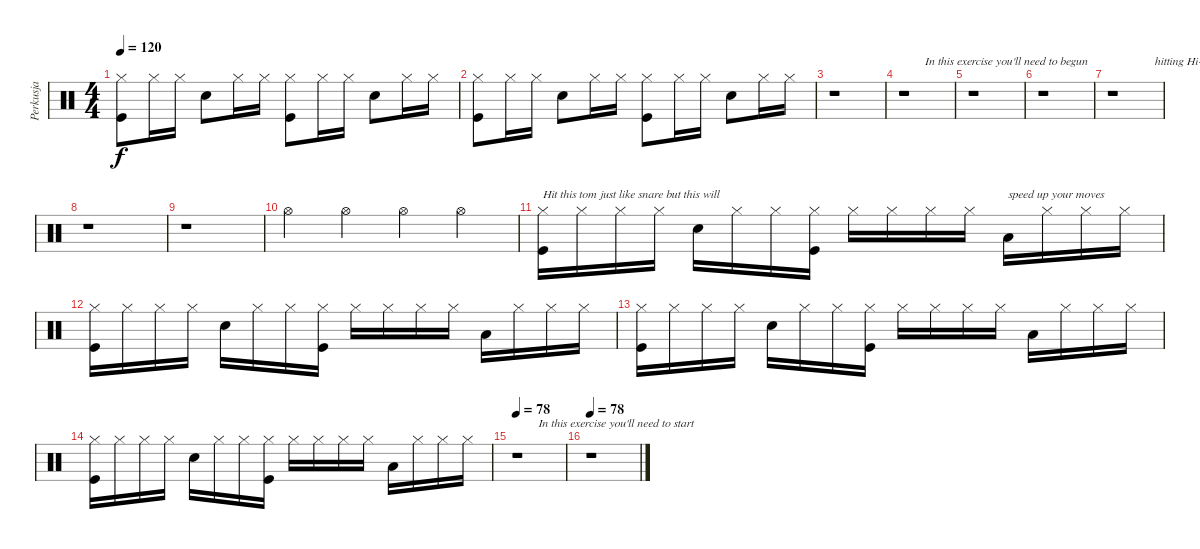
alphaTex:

\track ("Perkusja" "Perkusja") {instrument percussion}
\staff {score}
\articulation defaults
\ts (4 4)
\tempo 120
\clef neutral
\ks c
("Hi-Hat (closed)" "Kick (hit)").8{dy f} "Hi-Hat (closed)".16 "Hi-Hat (closed)".16 "Electric Snare (hit)".8 "Hi-Hat (closed)".16 "Hi-Hat (closed)".16 ("Hi-Hat (closed)" "Kick (hit)").8 "Hi-Hat (closed)".16 "Hi-Hat (closed)".16 "Electric Snare (hit)".8 "Hi-Hat (closed)".16 "Hi-Hat (closed)".16 |
("Hi-Hat (closed)" "Kick (hit)").8 "Hi-Hat (closed)".16 "Hi-Hat (closed)".16 "Electric Snare (hit)".8 "Hi-Hat (closed)".16 "Hi-Hat (closed)".16 ("Hi-Hat (closed)" "Kick (hit)").8 "Hi-Hat (closed)".16 "Hi-Hat (closed)".16 "Electric Snare (hit)".8 "Hi-Hat (closed)".16 "Hi-Hat (closed)".16 |
r.1 |
r.1{txt "       In this exercise you'll need to begun"} |
r.1 |
r.1 |
r.1{txt "              hitting Hi-Hat from right hand"} |
r.1 |
r.1 |
"Hi-Hat (open)".4 "Hi-Hat (open)".4 "Hi-Hat (open)".4 "Hi-Hat (open)".4 |
("Hi-Hat (closed)" "Kick (hit)").16{txt "Hit this tom just like snare but this will"} "Hi-Hat (closed)".16 "Hi-Hat (closed)".16 "Hi-Hat (closed)".16 "Electric Snare (hit)".16 "Hi-Hat (closed)".16 "Hi-Hat (closed)".16 ("Hi-Hat (closed)" "Kick (hit)").16 "Hi-Hat (closed)".16 "Hi-Hat (closed)".16 "Hi-Hat (closed)".16 "Hi-Hat (closed)".16 "Low Floor Tom (hit)".16{txt "speed up your moves"} "Hi-Hat (closed)".16 "Hi-Hat (closed)".16 "Hi-Hat (closed)".16 |
("Hi-Hat (closed)" "Kick (hit)").16 "Hi-Hat (closed)".16 "Hi-Hat (closed)".16 "Hi-Hat (closed)".16 "Electric Snare (hit)".16 "Hi-Hat (closed)".16 "Hi-Hat (closed)".16 ("Hi-Hat (closed)" "Kick (hit)").16 "Hi-Hat (closed)".16 "Hi-Hat (closed)".16 "Hi-Hat (closed)".16 "Hi-Hat (closed)".16 "Low Floor Tom (hit)".16 "Hi-Hat (closed)".16 "Hi-Hat (closed)".16 "Hi-Hat (closed)".16 |
("Hi-Hat (closed)" "Kick (hit)").16 "Hi-Hat (closed)".16 "Hi-Hat (closed)".16 "Hi-Hat (closed)".16 "Electric Snare (hit)".16 "Hi-Hat (closed)".16 "Hi-Hat (closed)".16 ("Hi-Hat (closed)" "Kick (hit)").16 "Hi-Hat (closed)".16 "Hi-Hat (closed)".16 "Hi-Hat (closed)".16 "Hi-Hat (closed)".16 "Low Floor Tom (hit)".16 "Hi-Hat (closed)".16 "Hi-Hat (closed)".16 "Hi-Hat (closed)".16 |
("Hi-Hat (closed)" "Kick (hit)").16 "Hi-Hat (closed)".16 "Hi-Hat (closed)".16 "Hi-Hat (closed)".16 "Electric Snare (hit)".16 "Hi-Hat (closed)".16 "Hi-Hat (closed)".16 ("Hi-Hat (closed)" "Kick (hit)").16 "Hi-Hat (closed)".16 "Hi-Hat (closed)".16 "Hi-Hat (closed)".16 "Hi-Hat (closed)".16 "Low Floor Tom (hit)".16 "Hi-Hat (closed)".16 "Hi-Hat (closed)".16 "Hi-Hat (closed)".16 |
\tempo 78
r.1{txt "       In this exercise you'll need to start "} |
\tempo 78
r.1
